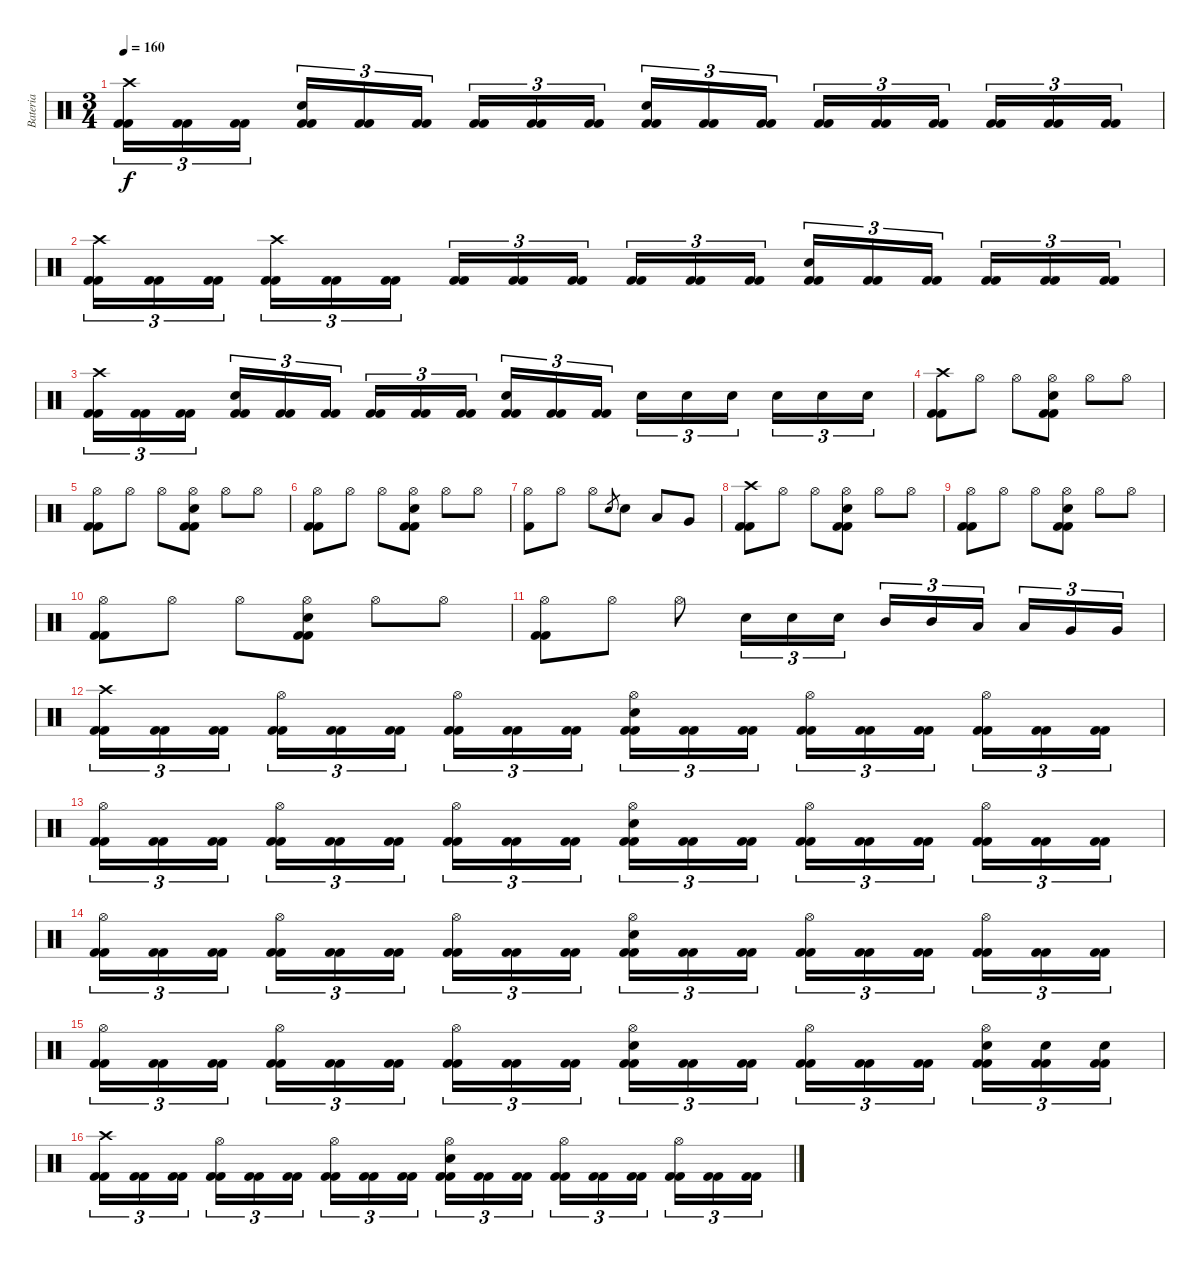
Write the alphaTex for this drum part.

\track ("Bateria" "Bateria") {instrument percussion}
\staff {score}
\articulation defaults
\ts (3 4)
\tempo 160
\clef neutral
\ks c
("Kick (hit) 2" "Kick (hit) 2" "Crash high (hit)").16{tu (3 2) dy f} ("Kick (hit) 2" "Kick (hit) 2").16{tu (3 2)} ("Kick (hit) 2" "Kick (hit) 2").16{tu (3 2)} ("Kick (hit) 2" "Kick (hit) 2" "Snare (hit) 2").16{tu (3 2)} ("Kick (hit) 2" "Kick (hit) 2").16{tu (3 2)} ("Kick (hit) 2" "Kick (hit) 2").16{tu (3 2)} ("Kick (hit) 2" "Kick (hit) 2").16{tu (3 2)} ("Kick (hit) 2" "Kick (hit) 2").16{tu (3 2)} ("Kick (hit) 2" "Kick (hit) 2").16{tu (3 2)} ("Kick (hit) 2" "Kick (hit) 2" "Snare (hit) 2").16{tu (3 2)} ("Kick (hit) 2" "Kick (hit) 2").16{tu (3 2)} ("Kick (hit) 2" "Kick (hit) 2").16{tu (3 2)} ("Kick (hit) 2" "Kick (hit) 2").16{tu (3 2)} ("Kick (hit) 2" "Kick (hit) 2").16{tu (3 2)} ("Kick (hit) 2" "Kick (hit) 2").16{tu (3 2)} ("Kick (hit) 2" "Kick (hit) 2").16{tu (3 2)} ("Kick (hit) 2" "Kick (hit) 2").16{tu (3 2)} ("Kick (hit) 2" "Kick (hit) 2").16{tu (3 2)} |
("Kick (hit) 2" "Kick (hit) 2" "Crash high (hit)").16{tu (3 2)} ("Kick (hit) 2" "Kick (hit) 2").16{tu (3 2)} ("Kick (hit) 2" "Kick (hit) 2").16{tu (3 2)} ("Kick (hit) 2" "Kick (hit) 2" "Crash high (hit)").16{tu (3 2)} ("Kick (hit) 2" "Kick (hit) 2").16{tu (3 2)} ("Kick (hit) 2" "Kick (hit) 2").16{tu (3 2)} ("Kick (hit) 2" "Kick (hit) 2").16{tu (3 2)} ("Kick (hit) 2" "Kick (hit) 2").16{tu (3 2)} ("Kick (hit) 2" "Kick (hit) 2").16{tu (3 2)} ("Kick (hit) 2" "Kick (hit) 2").16{tu (3 2)} ("Kick (hit) 2" "Kick (hit) 2").16{tu (3 2)} ("Kick (hit) 2" "Kick (hit) 2").16{tu (3 2)} ("Kick (hit) 2" "Kick (hit) 2" "Snare (hit) 2").16{tu (3 2)} ("Kick (hit) 2" "Kick (hit) 2").16{tu (3 2)} ("Kick (hit) 2" "Kick (hit) 2").16{tu (3 2)} ("Kick (hit) 2" "Kick (hit) 2").16{tu (3 2)} ("Kick (hit) 2" "Kick (hit) 2").16{tu (3 2)} ("Kick (hit) 2" "Kick (hit) 2").16{tu (3 2)} |
("Kick (hit) 2" "Kick (hit) 2" "Crash high (hit)").16{tu (3 2)} ("Kick (hit) 2" "Kick (hit) 2").16{tu (3 2)} ("Kick (hit) 2" "Kick (hit) 2").16{tu (3 2)} ("Kick (hit) 2" "Kick (hit) 2" "Snare (hit) 2").16{tu (3 2)} ("Kick (hit) 2" "Kick (hit) 2").16{tu (3 2)} ("Kick (hit) 2" "Kick (hit) 2").16{tu (3 2)} ("Kick (hit) 2" "Kick (hit) 2").16{tu (3 2)} ("Kick (hit) 2" "Kick (hit) 2").16{tu (3 2)} ("Kick (hit) 2" "Kick (hit) 2").16{tu (3 2)} ("Kick (hit) 2" "Kick (hit) 2" "Snare (hit) 2").16{tu (3 2)} ("Kick (hit) 2" "Kick (hit) 2").16{tu (3 2)} ("Kick (hit) 2" "Kick (hit) 2").16{tu (3 2)} "Snare (hit) 2".16{tu (3 2)} "Snare (hit) 2".16{tu (3 2)} "Snare (hit) 2".16{tu (3 2)} "Snare (hit) 2".16{tu (3 2)} "Snare (hit) 2".16{tu (3 2)} "Snare (hit) 2".16{tu (3 2)} |
("Crash high (hit)" "Kick (hit) 2" "Kick (hit) 2").8 "Hi-Hat (open)".8 "Hi-Hat (open)".8 ("Kick (hit) 2" "Kick (hit) 2" "Snare (hit) 2" "Hi-Hat (open)").8 "Hi-Hat (open)".8 "Hi-Hat (open)".8 |
("Hi-Hat (open)" "Kick (hit) 2" "Kick (hit) 2").8 "Hi-Hat (open)".8 "Hi-Hat (open)".8 ("Kick (hit) 2" "Kick (hit) 2" "Snare (hit) 2" "Hi-Hat (open)").8 "Hi-Hat (open)".8 "Hi-Hat (open)".8 |
("Hi-Hat (open)" "Kick (hit) 2" "Kick (hit) 2").8 "Hi-Hat (open)".8 "Hi-Hat (open)".8 ("Kick (hit) 2" "Kick (hit) 2" "Snare (hit) 2" "Hi-Hat (open)").8 "Hi-Hat (open)".8 "Hi-Hat (open)".8 |
("Hi-Hat (open)" "Kick (hit) 2").8 "Hi-Hat (open)".8 "Hi-Hat (open)".8 "Snare (hit) 2".8{gr} "Snare (hit) 2".8 "Low Tom (hit)".8 "Very Low Tom (hit)".8 |
("Crash high (hit)" "Kick (hit) 2" "Kick (hit) 2").8 "Hi-Hat (open)".8 "Hi-Hat (open)".8 ("Kick (hit) 2" "Kick (hit) 2" "Snare (hit) 2" "Hi-Hat (open)").8 "Hi-Hat (open)".8 "Hi-Hat (open)".8 |
("Hi-Hat (open)" "Kick (hit) 2" "Kick (hit) 2").8 "Hi-Hat (open)".8 "Hi-Hat (open)".8 ("Kick (hit) 2" "Kick (hit) 2" "Snare (hit) 2" "Hi-Hat (open)").8 "Hi-Hat (open)".8 "Hi-Hat (open)".8 |
("Hi-Hat (open)" "Kick (hit) 2" "Kick (hit) 2").8 "Hi-Hat (open)".8 "Hi-Hat (open)".8 ("Kick (hit) 2" "Kick (hit) 2" "Snare (hit) 2" "Hi-Hat (open)").8 "Hi-Hat (open)".8 "Hi-Hat (open)".8 |
("Hi-Hat (open)" "Kick (hit) 2" "Kick (hit) 2").8 "Hi-Hat (open)".8 "Hi-Hat (open)".8 "Snare (hit) 2".16{tu (3 2)} "Snare (hit) 2".16{tu (3 2)} "Snare (hit) 2".16{tu (3 2)} "Mid Tom (hit)".16{tu (3 2)} "Mid Tom (hit)".16{tu (3 2)} "Low Tom (hit)".16{tu (3 2)} "Low Tom (hit)".16{tu (3 2)} "Very Low Tom (hit)".16{tu (3 2)} "Very Low Tom (hit)".16{tu (3 2)} |
("Kick (hit) 2" "Kick (hit) 2" "Crash high (hit)").16{tu (3 2)} ("Kick (hit) 2" "Kick (hit) 2").16{tu (3 2)} ("Kick (hit) 2" "Kick (hit) 2").16{tu (3 2)} ("Kick (hit) 2" "Kick (hit) 2" "Hi-Hat (open)").16{tu (3 2)} ("Kick (hit) 2" "Kick (hit) 2").16{tu (3 2)} ("Kick (hit) 2" "Kick (hit) 2").16{tu (3 2)} ("Kick (hit) 2" "Kick (hit) 2" "Hi-Hat (open)").16{tu (3 2)} ("Kick (hit) 2" "Kick (hit) 2").16{tu (3 2)} ("Kick (hit) 2" "Kick (hit) 2").16{tu (3 2)} ("Kick (hit) 2" "Kick (hit) 2" "Snare (hit) 2" "Hi-Hat (open)").16{tu (3 2)} ("Kick (hit) 2" "Kick (hit) 2").16{tu (3 2)} ("Kick (hit) 2" "Kick (hit) 2").16{tu (3 2)} ("Kick (hit) 2" "Kick (hit) 2" "Hi-Hat (open)").16{tu (3 2)} ("Kick (hit) 2" "Kick (hit) 2").16{tu (3 2)} ("Kick (hit) 2" "Kick (hit) 2").16{tu (3 2)} ("Kick (hit) 2" "Kick (hit) 2" "Hi-Hat (open)").16{tu (3 2)} ("Kick (hit) 2" "Kick (hit) 2").16{tu (3 2)} ("Kick (hit) 2" "Kick (hit) 2").16{tu (3 2)} |
("Kick (hit) 2" "Kick (hit) 2" "Hi-Hat (open)").16{tu (3 2)} ("Kick (hit) 2" "Kick (hit) 2").16{tu (3 2)} ("Kick (hit) 2" "Kick (hit) 2").16{tu (3 2)} ("Kick (hit) 2" "Kick (hit) 2" "Hi-Hat (open)").16{tu (3 2)} ("Kick (hit) 2" "Kick (hit) 2").16{tu (3 2)} ("Kick (hit) 2" "Kick (hit) 2").16{tu (3 2)} ("Kick (hit) 2" "Kick (hit) 2" "Hi-Hat (open)").16{tu (3 2)} ("Kick (hit) 2" "Kick (hit) 2").16{tu (3 2)} ("Kick (hit) 2" "Kick (hit) 2").16{tu (3 2)} ("Kick (hit) 2" "Kick (hit) 2" "Snare (hit) 2" "Hi-Hat (open)").16{tu (3 2)} ("Kick (hit) 2" "Kick (hit) 2").16{tu (3 2)} ("Kick (hit) 2" "Kick (hit) 2").16{tu (3 2)} ("Kick (hit) 2" "Kick (hit) 2" "Hi-Hat (open)").16{tu (3 2)} ("Kick (hit) 2" "Kick (hit) 2").16{tu (3 2)} ("Kick (hit) 2" "Kick (hit) 2").16{tu (3 2)} ("Kick (hit) 2" "Kick (hit) 2" "Hi-Hat (open)").16{tu (3 2)} ("Kick (hit) 2" "Kick (hit) 2").16{tu (3 2)} ("Kick (hit) 2" "Kick (hit) 2").16{tu (3 2)} |
("Kick (hit) 2" "Kick (hit) 2" "Hi-Hat (open)").16{tu (3 2)} ("Kick (hit) 2" "Kick (hit) 2").16{tu (3 2)} ("Kick (hit) 2" "Kick (hit) 2").16{tu (3 2)} ("Kick (hit) 2" "Kick (hit) 2" "Hi-Hat (open)").16{tu (3 2)} ("Kick (hit) 2" "Kick (hit) 2").16{tu (3 2)} ("Kick (hit) 2" "Kick (hit) 2").16{tu (3 2)} ("Kick (hit) 2" "Kick (hit) 2" "Hi-Hat (open)").16{tu (3 2)} ("Kick (hit) 2" "Kick (hit) 2").16{tu (3 2)} ("Kick (hit) 2" "Kick (hit) 2").16{tu (3 2)} ("Kick (hit) 2" "Kick (hit) 2" "Snare (hit) 2" "Hi-Hat (open)").16{tu (3 2)} ("Kick (hit) 2" "Kick (hit) 2").16{tu (3 2)} ("Kick (hit) 2" "Kick (hit) 2").16{tu (3 2)} ("Kick (hit) 2" "Kick (hit) 2" "Hi-Hat (open)").16{tu (3 2)} ("Kick (hit) 2" "Kick (hit) 2").16{tu (3 2)} ("Kick (hit) 2" "Kick (hit) 2").16{tu (3 2)} ("Kick (hit) 2" "Kick (hit) 2" "Hi-Hat (open)").16{tu (3 2)} ("Kick (hit) 2" "Kick (hit) 2").16{tu (3 2)} ("Kick (hit) 2" "Kick (hit) 2").16{tu (3 2)} |
("Kick (hit) 2" "Kick (hit) 2" "Hi-Hat (open)").16{tu (3 2)} ("Kick (hit) 2" "Kick (hit) 2").16{tu (3 2)} ("Kick (hit) 2" "Kick (hit) 2").16{tu (3 2)} ("Kick (hit) 2" "Kick (hit) 2" "Hi-Hat (open)").16{tu (3 2)} ("Kick (hit) 2" "Kick (hit) 2").16{tu (3 2)} ("Kick (hit) 2" "Kick (hit) 2").16{tu (3 2)} ("Kick (hit) 2" "Kick (hit) 2" "Hi-Hat (open)").16{tu (3 2)} ("Kick (hit) 2" "Kick (hit) 2").16{tu (3 2)} ("Kick (hit) 2" "Kick (hit) 2").16{tu (3 2)} ("Kick (hit) 2" "Kick (hit) 2" "Snare (hit) 2" "Hi-Hat (open)").16{tu (3 2)} ("Kick (hit) 2" "Kick (hit) 2").16{tu (3 2)} ("Kick (hit) 2" "Kick (hit) 2").16{tu (3 2)} ("Kick (hit) 2" "Kick (hit) 2" "Hi-Hat (open)").16{tu (3 2)} ("Kick (hit) 2" "Kick (hit) 2").16{tu (3 2)} ("Kick (hit) 2" "Kick (hit) 2").16{tu (3 2)} ("Kick (hit) 2" "Kick (hit) 2" "Snare (hit) 2" "Hi-Hat (open)").16{tu (3 2)} ("Kick (hit) 2" "Kick (hit) 2" "Snare (hit) 2").16{tu (3 2)} ("Kick (hit) 2" "Kick (hit) 2" "Snare (hit) 2").16{tu (3 2)} |
("Kick (hit) 2" "Kick (hit) 2" "Crash high (hit)").16{tu (3 2)} ("Kick (hit) 2" "Kick (hit) 2").16{tu (3 2)} ("Kick (hit) 2" "Kick (hit) 2").16{tu (3 2)} ("Kick (hit) 2" "Kick (hit) 2" "Hi-Hat (open)").16{tu (3 2)} ("Kick (hit) 2" "Kick (hit) 2").16{tu (3 2)} ("Kick (hit) 2" "Kick (hit) 2").16{tu (3 2)} ("Kick (hit) 2" "Kick (hit) 2" "Hi-Hat (open)").16{tu (3 2)} ("Kick (hit) 2" "Kick (hit) 2").16{tu (3 2)} ("Kick (hit) 2" "Kick (hit) 2").16{tu (3 2)} ("Kick (hit) 2" "Kick (hit) 2" "Snare (hit) 2" "Hi-Hat (open)").16{tu (3 2)} ("Kick (hit) 2" "Kick (hit) 2").16{tu (3 2)} ("Kick (hit) 2" "Kick (hit) 2").16{tu (3 2)} ("Kick (hit) 2" "Kick (hit) 2" "Hi-Hat (open)").16{tu (3 2)} ("Kick (hit) 2" "Kick (hit) 2").16{tu (3 2)} ("Kick (hit) 2" "Kick (hit) 2").16{tu (3 2)} ("Kick (hit) 2" "Kick (hit) 2" "Hi-Hat (open)").16{tu (3 2)} ("Kick (hit) 2" "Kick (hit) 2").16{tu (3 2)} ("Kick (hit) 2" "Kick (hit) 2").16{tu (3 2)}
